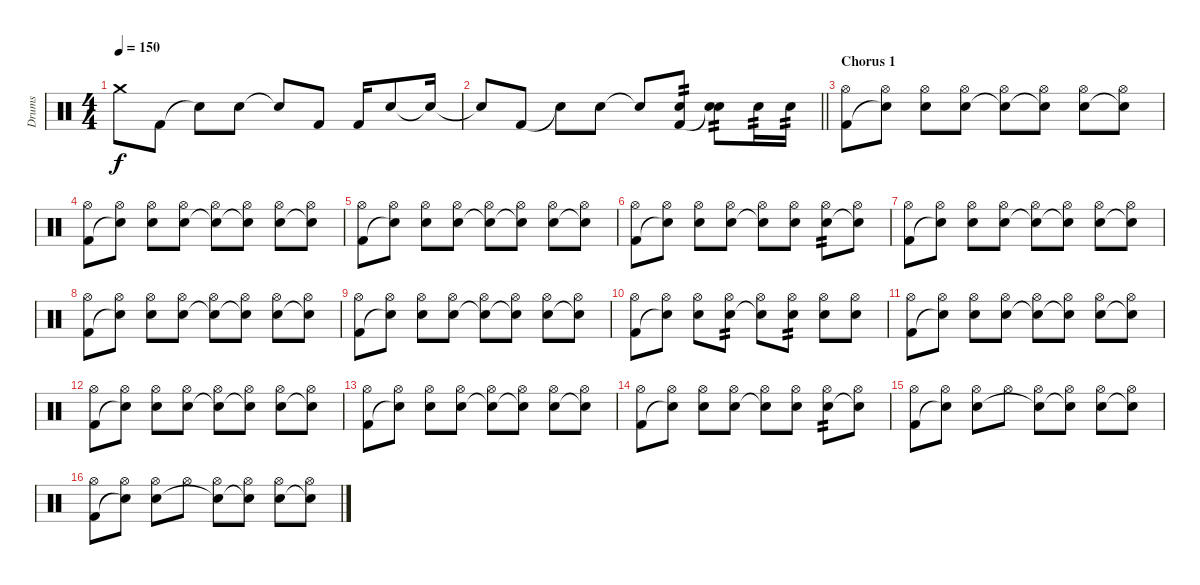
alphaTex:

\track ("Drums" "Drums") {instrument percussion}
\staff {score}
\articulation defaults
\ts (4 4)
\tempo 150
\clef neutral
\ks c "Crash medium (hit)".8{dy f} "Kick (hit) 2".8 "Snare (hit)"{t}.8 "Electric Snare (hit)".8 "Snare (hit)"{t}.8 "Kick (hit) 2".8 "Kick (hit) 2".16 "Electric Snare (hit)".8 "Snare (hit)"{t}.16
|
\barLineRight lightlight "Snare (hit)"{t}.8 "Kick (hit) 2".8 "Snare (hit)"{t}.8 "Electric Snare (hit)".8 "Snare (hit)"{t}.8
("Electric Snare (hit)" "Kick (hit) 2").8{tp 2} ("Electric Snare (hit)" "Snare (hit)"{t}).8{tp 2} "Electric Snare (hit)".16{tp 2} "Electric Snare (hit)".16{tp 2} |
\section ("" "Chorus 1")
("Hi-Hat (open)" "Kick (hit) 2").8 ("Hi-Hat (open)" "Snare (hit)"{t}).8 ("Hi-Hat (open)" "Electric Snare (hit)").8 ("Hi-Hat (open)" "Electric Snare (hit)").8 ("Hi-Hat (open)" "Snare (hit)"{t}).8 ("Hi-Hat (open)" "Electric Snare (hit)"{t}).8 ("Hi-Hat (open)" "Electric Snare (hit)").8 ("Hi-Hat (open)" "Snare (hit)"{t}).8 |
("Hi-Hat (open)" "Kick (hit) 2").8 ("Hi-Hat (open)" "Snare (hit)"{t}).8 ("Hi-Hat (open)" "Electric Snare (hit)").8 ("Hi-Hat (open)" "Electric Snare (hit)").8 ("Hi-Hat (open)" "Snare (hit)"{t}).8 ("Hi-Hat (open)" "Electric Snare (hit)"{t}).8 ("Hi-Hat (open)" "Electric Snare (hit)").8 ("Hi-Hat (open)" "Snare (hit)"{t}).8 |
("Hi-Hat (open)" "Kick (hit) 2").8 ("Hi-Hat (open)" "Snare (hit)"{t}).8 ("Hi-Hat (open)" "Electric Snare (hit)").8 ("Hi-Hat (open)" "Electric Snare (hit)").8 ("Hi-Hat (open)" "Snare (hit)"{t}).8 ("Hi-Hat (open)" "Electric Snare (hit)"{t}).8 ("Hi-Hat (open)" "Electric Snare (hit)").8 ("Hi-Hat (open)" "Snare (hit)"{t}).8 |
("Hi-Hat (open)" "Kick (hit) 2").8 ("Hi-Hat (open)" "Snare (hit)"{t}).8 ("Hi-Hat (open)" "Electric Snare (hit)").8 ("Hi-Hat (open)" "Electric Snare (hit)").8 ("Hi-Hat (open)" "Snare (hit)"{t}).8 ("Hi-Hat (open)" "Electric Snare (hit)").8 ("Hi-Hat (open)" "Electric Snare (hit)").8{tp 2} ("Hi-Hat (open)" "Snare (hit)"{t}).8 |
("Hi-Hat (open)" "Kick (hit) 2").8 ("Hi-Hat (open)" "Snare (hit)"{t}).8 ("Hi-Hat (open)" "Electric Snare (hit)").8 ("Hi-Hat (open)" "Electric Snare (hit)").8 ("Hi-Hat (open)" "Snare (hit)"{t}).8 ("Hi-Hat (open)" "Electric Snare (hit)"{t}).8 ("Hi-Hat (open)" "Electric Snare (hit)").8 ("Hi-Hat (open)" "Snare (hit)"{t}).8 |
("Hi-Hat (open)" "Kick (hit) 2").8 ("Hi-Hat (open)" "Snare (hit)"{t}).8 ("Hi-Hat (open)" "Electric Snare (hit)").8 ("Hi-Hat (open)" "Electric Snare (hit)").8 ("Hi-Hat (open)" "Snare (hit)"{t}).8 ("Hi-Hat (open)" "Electric Snare (hit)"{t}).8 ("Hi-Hat (open)" "Electric Snare (hit)").8 ("Hi-Hat (open)" "Snare (hit)"{t}).8 |
("Hi-Hat (open)" "Kick (hit) 2").8 ("Hi-Hat (open)" "Snare (hit)"{t}).8 ("Hi-Hat (open)" "Electric Snare (hit)").8 ("Hi-Hat (open)" "Electric Snare (hit)").8 ("Hi-Hat (open)" "Snare (hit)"{t}).8 ("Hi-Hat (open)" "Electric Snare (hit)"{t}).8 ("Hi-Hat (open)" "Electric Snare (hit)").8 ("Hi-Hat (open)" "Snare (hit)"{t}).8 |
("Hi-Hat (open)" "Kick (hit) 2").8 ("Hi-Hat (open)" "Snare (hit)"{t}).8 ("Hi-Hat (open)" "Electric Snare (hit)").8 ("Hi-Hat (open)" "Electric Snare (hit)").8{tp 2} ("Hi-Hat (open)" "Snare (hit)"{t}).8 ("Hi-Hat (open)" "Electric Snare (hit)").8{tp 2} ("Hi-Hat (open)" "Electric Snare (hit)").8 ("Hi-Hat (open)" "Electric Snare (hit)").8 |
("Hi-Hat (open)" "Kick (hit) 2").8 ("Hi-Hat (open)" "Snare (hit)"{t}).8 ("Hi-Hat (open)" "Electric Snare (hit)").8 ("Hi-Hat (open)" "Electric Snare (hit)").8 ("Hi-Hat (open)" "Snare (hit)"{t}).8 ("Hi-Hat (open)" "Electric Snare (hit)"{t}).8 ("Hi-Hat (open)" "Electric Snare (hit)").8 ("Hi-Hat (open)" "Snare (hit)"{t}).8 |
("Hi-Hat (open)" "Kick (hit) 2").8 ("Hi-Hat (open)" "Snare (hit)"{t}).8 ("Hi-Hat (open)" "Electric Snare (hit)").8 ("Hi-Hat (open)" "Electric Snare (hit)").8 ("Hi-Hat (open)" "Snare (hit)"{t}).8 ("Hi-Hat (open)" "Electric Snare (hit)"{t}).8 ("Hi-Hat (open)" "Electric Snare (hit)").8 ("Hi-Hat (open)" "Snare (hit)"{t}).8 |
("Hi-Hat (open)" "Kick (hit) 2").8 ("Hi-Hat (open)" "Snare (hit)"{t}).8 ("Hi-Hat (open)" "Electric Snare (hit)").8 ("Hi-Hat (open)" "Electric Snare (hit)").8 ("Hi-Hat (open)" "Snare (hit)"{t}).8 ("Hi-Hat (open)" "Electric Snare (hit)"{t}).8 ("Hi-Hat (open)" "Electric Snare (hit)").8 ("Hi-Hat (open)" "Snare (hit)"{t}).8 |
("Hi-Hat (open)" "Kick (hit) 2").8 ("Hi-Hat (open)" "Snare (hit)"{t}).8 ("Hi-Hat (open)" "Electric Snare (hit)").8 ("Hi-Hat (open)" "Electric Snare (hit)").8 ("Hi-Hat (open)" "Snare (hit)"{t}).8 ("Hi-Hat (open)" "Electric Snare (hit)").8 ("Hi-Hat (open)" "Electric Snare (hit)").8{tp 2} ("Hi-Hat (open)" "Snare (hit)"{t}).8 |
("Hi-Hat (open)" "Kick (hit) 2").8 ("Hi-Hat (open)" "Snare (hit)"{t}).8 ("Hi-Hat (open)" "Electric Snare (hit)").8 "Hi-Hat (open)".8 ("Hi-Hat (open)" "Snare (hit)"{t}).8 ("Hi-Hat (open)" "Electric Snare (hit)"{t}).8 ("Hi-Hat (open)" "Electric Snare (hit)").8 ("Hi-Hat (open)" "Snare (hit)"{t}).8 |
("Hi-Hat (open)" "Kick (hit) 2").8 ("Hi-Hat (open)" "Snare (hit)"{t}).8 ("Hi-Hat (open)" "Electric Snare (hit)").8 "Hi-Hat (open)".8 ("Hi-Hat (open)" "Snare (hit)"{t}).8 ("Hi-Hat (open)" "Electric Snare (hit)"{t}).8 ("Hi-Hat (open)" "Electric Snare (hit)").8 ("Hi-Hat (open)" "Snare (hit)"{t}).8
